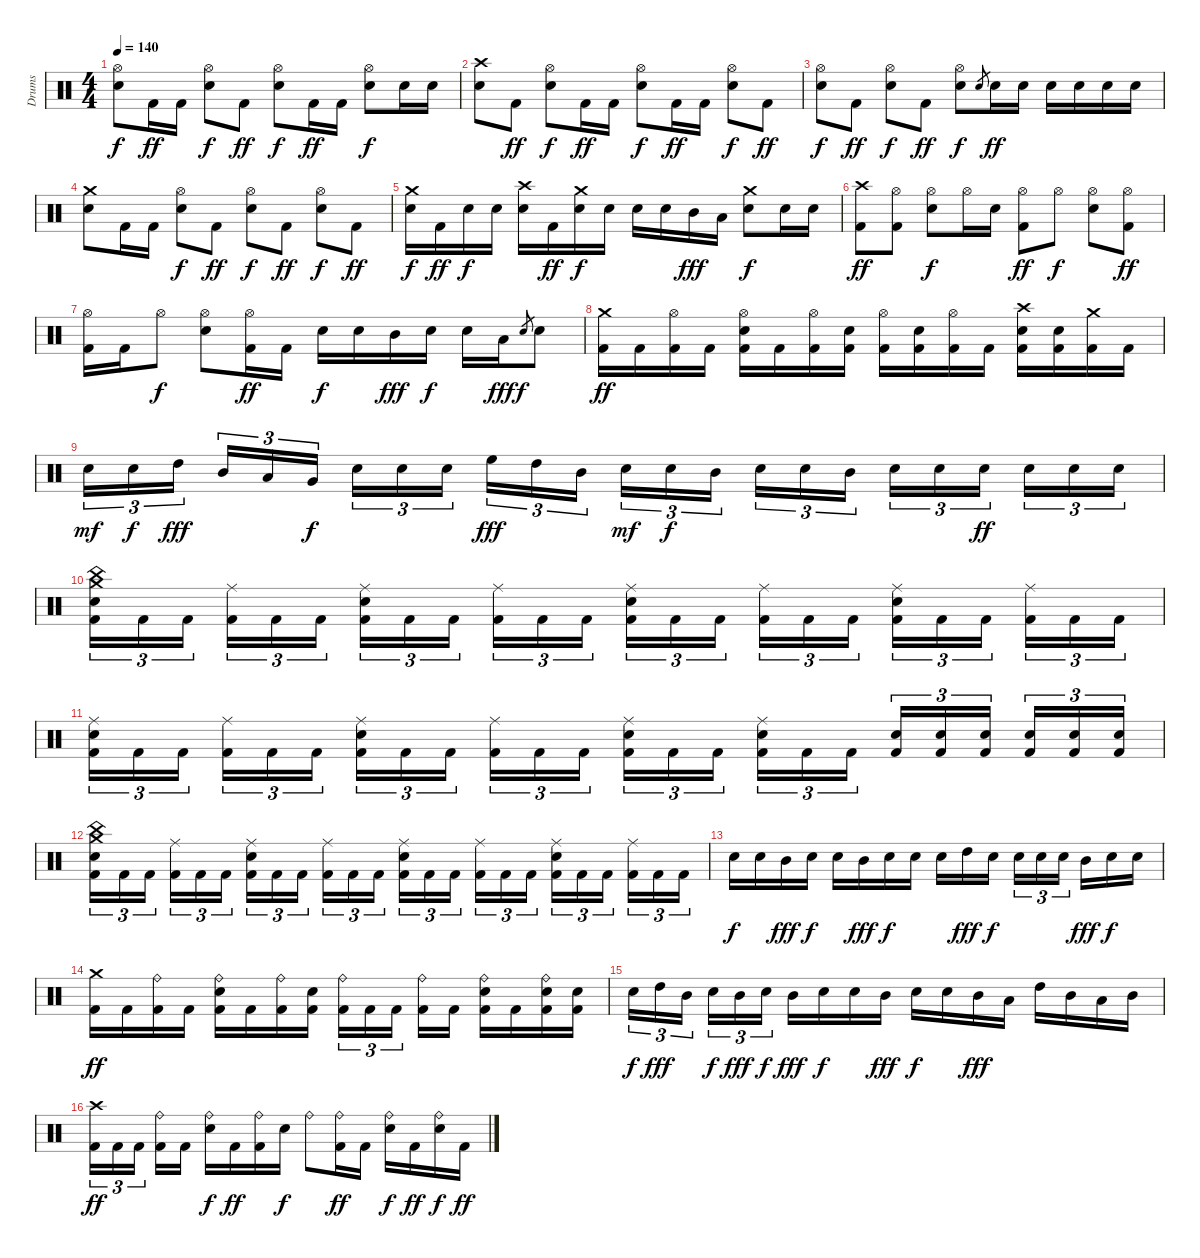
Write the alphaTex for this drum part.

\track ("Drums" "Drums") {instrument percussion}
\staff {score}
\articulation defaults
\ts (4 4)
\tempo 140
\clef neutral
\ks c
("Hi-Hat (open)" "Snare (hit) 2").8{dy f} "Kick (hit) 2".16{dy ff} "Kick (hit) 2".16 ("Hi-Hat (open)" "Snare (hit) 2").8{dy f} "Kick (hit) 2".8{dy ff} ("Hi-Hat (open)" "Snare (hit) 2").8{dy f} "Kick (hit) 2".16{dy ff} "Kick (hit) 2".16 ("Hi-Hat (open)" "Snare (hit) 2").8{dy f} "Snare (hit) 2".16 "Snare (hit) 2".16 |
("Crash high (hit)" "Snare (hit) 2").8 "Kick (hit) 2".8{dy ff} ("Hi-Hat (open)" "Snare (hit) 2").8{dy f} "Kick (hit) 2".16{dy ff} "Kick (hit) 2".16 ("Hi-Hat (open)" "Snare (hit) 2").8{dy f} "Kick (hit) 2".16{dy ff} "Kick (hit) 2".16 ("Hi-Hat (open)" "Snare (hit) 2").8{dy f} "Kick (hit) 2".8{dy ff} |
("Hi-Hat (open)" "Snare (hit) 2").8{dy f} "Kick (hit) 2".8{dy ff} ("Hi-Hat (open)" "Snare (hit) 2").8{dy f} "Kick (hit) 2".8{dy ff} ("Hi-Hat (open)" "Snare (hit) 2").8{dy f} "Snare (hit) 2".8{gr} "Snare (hit) 2".16{dy ff} "Snare (hit) 2".16 "Snare (hit) 2".16 "Snare (hit) 2".16 "Snare (hit) 2".16 "Snare (hit) 2".16 |
("Crash medium (hit)" "Snare (hit) 2").8 "Kick (hit) 2".16 "Kick (hit) 2".16 ("Hi-Hat (open)" "Snare (hit) 2").8{dy f} "Kick (hit) 2".8{dy ff} ("Hi-Hat (open)" "Snare (hit) 2").8{dy f} "Kick (hit) 2".8{dy ff} ("Hi-Hat (open)" "Snare (hit) 2").8{dy f} "Kick (hit) 2".8{dy ff} |
("Crash medium (hit)" "Snare (hit) 2").16{dy f} "Kick (hit) 2".16{dy ff} "Snare (hit) 2".16{dy f} "Snare (hit) 2".16 ("Crash high (hit)" "Snare (hit) 2").16 "Kick (hit) 2".16{dy ff} ("Crash medium (hit)" "Snare (hit) 2").16{dy f} "Snare (hit) 2".16 "Snare (hit) 2".16 "Snare (hit) 2".16 "Mid Tom (hit)".16{dy fff} "Low Tom (hit)".16 ("Crash medium (hit)" "Snare (hit) 2").8{dy f} "Snare (hit) 2".16 "Snare (hit) 2".16 |
("Crash high (hit)" "Kick (hit) 2").8{dy ff} ("Hi-Hat (open)" "Kick (hit) 2").8 ("Hi-Hat (open)" "Snare (hit) 2").8{dy f} "Hi-Hat (open)".16 "Snare (hit) 2".16 ("Hi-Hat (open)" "Kick (hit) 2").8{dy ff} "Hi-Hat (open)".8{dy f} ("Hi-Hat (open)" "Snare (hit) 2").8 ("Hi-Hat (open)" "Kick (hit) 2").8{dy ff} |
("Hi-Hat (open)" "Kick (hit) 2").16 "Kick (hit) 2".16 "Hi-Hat (open)".8{dy f} ("Hi-Hat (open)" "Snare (hit) 2").8 ("Hi-Hat (open)" "Kick (hit) 2").16{dy ff} "Kick (hit) 2".16 "Snare (hit) 2".16{dy f} "Snare (hit) 2".16 "Mid Tom (hit)".16{dy fff} "Snare (hit) 2".16{dy f} "Snare (hit) 2".16 "Low Tom (hit)".16{dy fff} "Snare (hit) 2".8{gr dy f} "Snare (hit) 2".8 |
("Crash medium (hit)" "Kick (hit) 2").16{dy ff} "Kick (hit) 2".16 ("Hi-Hat (open)" "Kick (hit) 2").16 "Kick (hit) 2".16 ("Hi-Hat (open)" "Snare (hit) 2" "Kick (hit) 2").16 "Kick (hit) 2".16 ("Hi-Hat (open)" "Kick (hit) 2").16 ("Snare (hit) 2" "Kick (hit) 2").16 ("Hi-Hat (open)" "Kick (hit) 2").16 ("Snare (hit) 2" "Kick (hit) 2").16 ("Hi-Hat (open)" "Kick (hit) 2").16 "Kick (hit) 2".16 ("Crash high (hit)" "Snare (hit) 2" "Kick (hit) 2").16 ("Snare (hit) 2" "Kick (hit) 2").16 ("Crash medium (hit)" "Kick (hit) 2").16 "Kick (hit) 2".16 |
"Snare (hit) 2".16{tu (3 2) dy mf} "Snare (hit) 2".16{tu (3 2) dy f} "High Tom (hit)".16{tu (3 2) dy fff} "Mid Tom (hit)".16{tu (3 2)} "Low Tom (hit)".16{tu (3 2)} "Very Low Tom (hit)".16{tu (3 2) dy f} "Snare (hit) 2".16{tu (3 2)} "Snare (hit) 2".16{tu (3 2)} "Snare (hit) 2".16{tu (3 2)} "High Floor Tom (hit)".16{tu (3 2) dy fff} "High Tom (hit)".16{tu (3 2)} "Mid Tom (hit)".16{tu (3 2)} "Snare (hit) 2".16{tu (3 2) dy mf} "Snare (hit) 2".16{tu (3 2) dy f} "Mid Tom (hit)".16{tu (3 2)} "Snare (hit) 2".16{tu (3 2)} "Snare (hit) 2".16{tu (3 2)} "Mid Tom (hit)".16{tu (3 2)} "Snare (hit) 2".16{tu (3 2)} "Snare (hit) 2".16{tu (3 2)} "Snare (hit) 2".16{tu (3 2) dy ff} "Snare (hit) 2".16{tu (3 2)} "Snare (hit) 2".16{tu (3 2)} "Snare (hit) 2".16{tu (3 2)} |
("Crash medium (hit)" "China (hit)" "Snare (hit) 2" "Kick (hit) 2").16{tu (3 2)} "Kick (hit) 2".16{tu (3 2)} "Kick (hit) 2".16{tu (3 2)} ("Ride (middle)" "Kick (hit) 2").16{tu (3 2)} "Kick (hit) 2".16{tu (3 2)} "Kick (hit) 2".16{tu (3 2)} ("Ride (middle)" "Snare (hit) 2" "Kick (hit) 2").16{tu (3 2)} "Kick (hit) 2".16{tu (3 2)} "Kick (hit) 2".16{tu (3 2)} ("Ride (middle)" "Kick (hit) 2").16{tu (3 2)} "Kick (hit) 2".16{tu (3 2)} "Kick (hit) 2".16{tu (3 2)} ("Ride (middle)" "Snare (hit) 2" "Kick (hit) 2").16{tu (3 2)} "Kick (hit) 2".16{tu (3 2)} "Kick (hit) 2".16{tu (3 2)} ("Ride (middle)" "Kick (hit) 2").16{tu (3 2)} "Kick (hit) 2".16{tu (3 2)} "Kick (hit) 2".16{tu (3 2)} ("Ride (middle)" "Snare (hit) 2" "Kick (hit) 2").16{tu (3 2)} "Kick (hit) 2".16{tu (3 2)} "Kick (hit) 2".16{tu (3 2)} ("Ride (middle)" "Kick (hit) 2").16{tu (3 2)} "Kick (hit) 2".16{tu (3 2)} "Kick (hit) 2".16{tu (3 2)} |
("Ride (middle)" "Snare (hit) 2" "Kick (hit) 2").16{tu (3 2)} "Kick (hit) 2".16{tu (3 2)} "Kick (hit) 2".16{tu (3 2)} ("Ride (middle)" "Kick (hit) 2").16{tu (3 2)} "Kick (hit) 2".16{tu (3 2)} "Kick (hit) 2".16{tu (3 2)} ("Ride (middle)" "Snare (hit) 2" "Kick (hit) 2").16{tu (3 2)} "Kick (hit) 2".16{tu (3 2)} "Kick (hit) 2".16{tu (3 2)} ("Ride (middle)" "Kick (hit) 2").16{tu (3 2)} "Kick (hit) 2".16{tu (3 2)} "Kick (hit) 2".16{tu (3 2)} ("Ride (middle)" "Snare (hit) 2" "Kick (hit) 2").16{tu (3 2)} "Kick (hit) 2".16{tu (3 2)} "Kick (hit) 2".16{tu (3 2)} ("Ride (middle)" "Snare (hit) 2" "Kick (hit) 2").16{tu (3 2)} "Kick (hit) 2".16{tu (3 2)} "Kick (hit) 2".16{tu (3 2)} ("Snare (hit) 2" "Kick (hit) 2").16{tu (3 2)} ("Snare (hit) 2" "Kick (hit) 2").16{tu (3 2)} ("Snare (hit) 2" "Kick (hit) 2").16{tu (3 2)} ("Snare (hit) 2" "Kick (hit) 2").16{tu (3 2)} ("Snare (hit) 2" "Kick (hit) 2").16{tu (3 2)} ("Snare (hit) 2" "Kick (hit) 2").16{tu (3 2)} |
("Crash medium (hit)" "China (hit)" "Snare (hit) 2" "Kick (hit) 2").16{tu (3 2)} "Kick (hit) 2".16{tu (3 2)} "Kick (hit) 2".16{tu (3 2)} ("Ride (middle)" "Kick (hit) 2").16{tu (3 2)} "Kick (hit) 2".16{tu (3 2)} "Kick (hit) 2".16{tu (3 2)} ("Ride (middle)" "Snare (hit) 2" "Kick (hit) 2").16{tu (3 2)} "Kick (hit) 2".16{tu (3 2)} "Kick (hit) 2".16{tu (3 2)} ("Ride (middle)" "Kick (hit) 2").16{tu (3 2)} "Kick (hit) 2".16{tu (3 2)} "Kick (hit) 2".16{tu (3 2)} ("Ride (middle)" "Snare (hit) 2" "Kick (hit) 2").16{tu (3 2)} "Kick (hit) 2".16{tu (3 2)} "Kick (hit) 2".16{tu (3 2)} ("Ride (middle)" "Kick (hit) 2").16{tu (3 2)} "Kick (hit) 2".16{tu (3 2)} "Kick (hit) 2".16{tu (3 2)} ("Ride (middle)" "Snare (hit) 2" "Kick (hit) 2").16{tu (3 2)} "Kick (hit) 2".16{tu (3 2)} "Kick (hit) 2".16{tu (3 2)} ("Ride (middle)" "Kick (hit) 2").16{tu (3 2)} "Kick (hit) 2".16{tu (3 2)} "Kick (hit) 2".16{tu (3 2)} |
"Snare (hit) 2".16{dy f} "Snare (hit) 2".16 "Mid Tom (hit)".16{dy fff} "Snare (hit) 2".16{dy f} "Snare (hit) 2".16 "Mid Tom (hit)".16{dy fff} "Snare (hit) 2".16{dy f} "Snare (hit) 2".16 "Snare (hit) 2".16 "High Tom (hit)".16{dy fff} "Snare (hit) 2".16{dy f} "Snare (hit) 2".16{tu (3 2)} "Snare (hit) 2".16{tu (3 2)} "Snare (hit) 2".16{tu (3 2)} "Mid Tom (hit)".16{dy fff} "Snare (hit) 2".16{dy f} "Snare (hit) 2".16 |
("Crash medium (hit)" "Kick (hit) 2").16{dy ff} "Kick (hit) 2".16 ("Ride (bell)" "Kick (hit) 2").16 "Kick (hit) 2".16 ("Ride (bell)" "Snare (hit) 2" "Kick (hit) 2").16 "Kick (hit) 2".16 ("Ride (bell)" "Kick (hit) 2").16 ("Snare (hit) 2" "Kick (hit) 2").16 ("Ride (bell)" "Kick (hit) 2").16{tu (3 2)} "Kick (hit) 2".16{tu (3 2)} "Kick (hit) 2".16{tu (3 2)} ("Ride (bell)" "Kick (hit) 2").16 "Kick (hit) 2".16 ("Ride (bell)" "Snare (hit) 2" "Kick (hit) 2").16 "Kick (hit) 2".16 ("Ride (bell)" "Snare (hit) 2" "Kick (hit) 2").16 ("Snare (hit) 2" "Kick (hit) 2").16 |
"Snare (hit) 2".16{tu (3 2) dy f} "High Tom (hit)".16{tu (3 2) dy fff} "Mid Tom (hit)".16{tu (3 2)} "Snare (hit) 2".16{tu (3 2) dy f} "Mid Tom (hit)".16{tu (3 2) dy fff} "Snare (hit) 2".16{tu (3 2) dy f} "Mid Tom (hit)".16{dy fff} "Snare (hit) 2".16{dy f} "Snare (hit) 2".16 "Mid Tom (hit)".16{dy fff} "Snare (hit) 2".16{dy f} "Snare (hit) 2".16 "Mid Tom (hit)".16{dy fff} "Low Tom (hit)".16 "High Tom (hit)".16 "Mid Tom (hit)".16 "Low Tom (hit)".16 "Mid Tom (hit)".16 |
("Crash high (hit)" "Kick (hit) 2").16{tu (3 2) dy ff} "Kick (hit) 2".16{tu (3 2)} "Kick (hit) 2".16{tu (3 2)} ("Ride (bell)" "Kick (hit) 2").16 "Kick (hit) 2".16 ("Ride (bell)" "Snare (hit) 2").16{dy f} "Kick (hit) 2".16{dy ff} ("Ride (bell)" "Kick (hit) 2").16 "Snare (hit) 2".16{dy f} "Ride (bell)".8 ("Ride (bell)" "Kick (hit) 2").16{dy ff} "Kick (hit) 2".16 ("Ride (bell)" "Snare (hit) 2").16{dy f} "Kick (hit) 2".16{dy ff} ("Ride (bell)" "Snare (hit) 2").16{dy f} "Kick (hit) 2".16{dy ff}
